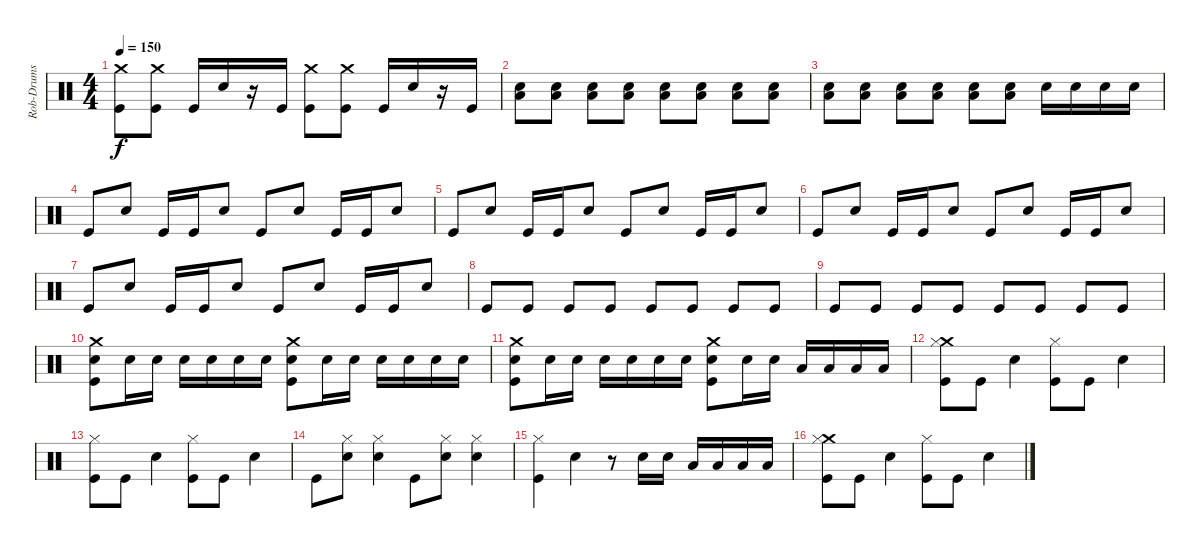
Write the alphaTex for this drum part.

\track ("Rob-Drums" "Rob-Drums") {instrument percussion}
\staff {score}
\articulation defaults
\ts (4 4)
\tempo 150
\clef neutral
\ks c
("Crash medium (hit)" "Kick (hit)").8{dy f} ("Crash medium (hit)" "Kick (hit)").8 "Kick (hit)".16 "Snare (hit) 2".16 r.16 "Kick (hit)".16 ("Crash medium (hit)" "Kick (hit)").8 ("Crash medium (hit)" "Kick (hit)").8 "Kick (hit)".16 "Snare (hit) 2".16 r.16 "Kick (hit)".16 |
("Snare (hit) 2" "Low Floor Tom (hit)").8 ("Snare (hit) 2" "Low Floor Tom (hit)").8 ("Snare (hit) 2" "Low Floor Tom (hit)").8 ("Snare (hit) 2" "Low Floor Tom (hit)").8 ("Snare (hit) 2" "Low Floor Tom (hit)").8 ("Snare (hit) 2" "Low Floor Tom (hit)").8 ("Snare (hit) 2" "Low Floor Tom (hit)").8 ("Snare (hit) 2" "Low Floor Tom (hit)").8 |
("Snare (hit) 2" "Low Floor Tom (hit)").8 ("Snare (hit) 2" "Low Floor Tom (hit)").8 ("Snare (hit) 2" "Low Floor Tom (hit)").8 ("Snare (hit) 2" "Low Floor Tom (hit)").8 ("Snare (hit) 2" "Low Floor Tom (hit)").8 ("Snare (hit) 2" "Low Floor Tom (hit)").8 "Snare (hit) 2".16 "Snare (hit) 2".16 "Snare (hit) 2".16 "Snare (hit) 2".16 |
"Kick (hit)".8 "Snare (hit) 2".8 "Kick (hit)".16 "Kick (hit)".16 "Snare (hit) 2".8 "Kick (hit)".8 "Snare (hit) 2".8 "Kick (hit)".16 "Kick (hit)".16 "Snare (hit) 2".8 |
"Kick (hit)".8 "Snare (hit) 2".8 "Kick (hit)".16 "Kick (hit)".16 "Snare (hit) 2".8 "Kick (hit)".8 "Snare (hit) 2".8 "Kick (hit)".16 "Kick (hit)".16 "Snare (hit) 2".8 |
"Kick (hit)".8 "Snare (hit) 2".8 "Kick (hit)".16 "Kick (hit)".16 "Snare (hit) 2".8 "Kick (hit)".8 "Snare (hit) 2".8 "Kick (hit)".16 "Kick (hit)".16 "Snare (hit) 2".8 |
"Kick (hit)".8 "Snare (hit) 2".8 "Kick (hit)".16 "Kick (hit)".16 "Snare (hit) 2".8 "Kick (hit)".8 "Snare (hit) 2".8 "Kick (hit)".16 "Kick (hit)".16 "Snare (hit) 2".8 |
"Kick (hit)".8 "Kick (hit)".8 "Kick (hit)".8 "Kick (hit)".8 "Kick (hit)".8 "Kick (hit)".8 "Kick (hit)".8 "Kick (hit)".8 |
"Kick (hit)".8 "Kick (hit)".8 "Kick (hit)".8 "Kick (hit)".8 "Kick (hit)".8 "Kick (hit)".8 "Kick (hit)".8 "Kick (hit)".8 |
("Crash medium (hit)" "Snare (hit) 2" "Kick (hit)").8 "Snare (hit) 2".16 "Snare (hit) 2".16 "Snare (hit) 2".16 "Snare (hit) 2".16 "Snare (hit) 2".16 "Snare (hit) 2".16 ("Crash medium (hit)" "Snare (hit) 2" "Kick (hit)").8 "Snare (hit) 2".16 "Snare (hit) 2".16 "Snare (hit) 2".16 "Snare (hit) 2".16 "Snare (hit) 2".16 "Snare (hit) 2".16 |
("Crash medium (hit)" "Snare (hit) 2" "Kick (hit)").8 "Snare (hit) 2".16 "Snare (hit) 2".16 "Snare (hit) 2".16 "Snare (hit) 2".16 "Snare (hit) 2".16 "Snare (hit) 2".16 ("Crash medium (hit)" "Snare (hit) 2" "Kick (hit)").8 "Snare (hit) 2".16 "Snare (hit) 2".16 "Low Tom (hit)".16 "Low Tom (hit)".16 "Low Floor Tom (hit)".16 "Low Floor Tom (hit)".16 |
("Crash medium (hit)" "Hi-Hat (closed)" "Kick (hit)").8 "Kick (hit)".8 "Snare (hit) 2".4 ("Hi-Hat (closed)" "Kick (hit)").8 "Kick (hit)".8 "Snare (hit) 2".4 |
("Hi-Hat (closed)" "Kick (hit)").8 "Kick (hit)".8 "Snare (hit) 2".4 ("Hi-Hat (closed)" "Kick (hit)").8 "Kick (hit)".8 "Snare (hit) 2".4 |
"Kick (hit)".8 ("Hi-Hat (closed)" "Snare (hit) 2").8 ("Hi-Hat (closed)" "Snare (hit) 2").4 "Kick (hit)".8 ("Hi-Hat (closed)" "Snare (hit) 2").8 ("Hi-Hat (closed)" "Snare (hit) 2").4 |
("Hi-Hat (closed)" "Kick (hit)").4 "Snare (hit) 2".4 r.8 "Snare (hit) 2".16 "Snare (hit) 2".16 "Low Tom (hit)".16 "Low Tom (hit)".16 "Low Floor Tom (hit)".16 "Low Floor Tom (hit)".16 |
("Crash medium (hit)" "Hi-Hat (closed)" "Kick (hit)").8 "Kick (hit)".8 "Snare (hit) 2".4 ("Hi-Hat (closed)" "Kick (hit)").8 "Kick (hit)".8 "Snare (hit) 2".4
